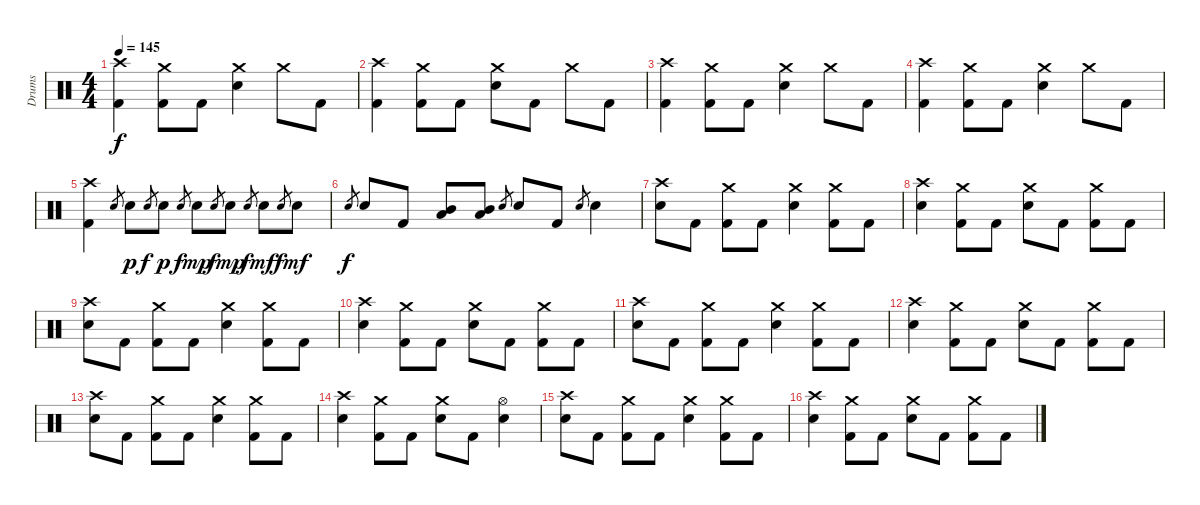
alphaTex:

\track ("Drums" "Drums") {instrument percussion}
\staff {score}
\articulation defaults
\ts (4 4)
\tempo 145
\clef neutral
\ks c
("Crash high (hit)" "Kick (hit) 2").4{dy f} ("Crash medium (hit)" "Kick (hit) 2").8 "Kick (hit) 2".8 ("Crash medium (hit)" "Electric Snare (hit)").4 "Crash medium (hit)".8 "Kick (hit) 2".8 |
("Crash high (hit)" "Kick (hit) 2").4 ("Crash medium (hit)" "Kick (hit) 2").8 "Kick (hit) 2".8 ("Crash medium (hit)" "Electric Snare (hit)").8 "Kick (hit) 2".8 "Crash medium (hit)".8 "Kick (hit) 2".8 |
("Crash high (hit)" "Kick (hit) 2").4 ("Crash medium (hit)" "Kick (hit) 2").8 "Kick (hit) 2".8 ("Crash medium (hit)" "Electric Snare (hit)").4 "Crash medium (hit)".8 "Kick (hit) 2".8 |
("Crash high (hit)" "Kick (hit) 2").4 ("Crash medium (hit)" "Kick (hit) 2").8 "Kick (hit) 2".8 ("Crash medium (hit)" "Electric Snare (hit)").4 "Crash medium (hit)".8 "Kick (hit) 2".8 |
("Crash high (hit)" "Kick (hit) 2").4 "Electric Snare (hit)".8{gr} "Electric Snare (hit)".8{dy p} "Electric Snare (hit)".8{gr dy f} "Electric Snare (hit)".8{dy p} "Electric Snare (hit)".8{gr dy f} "Electric Snare (hit)".8{dy mp} "Electric Snare (hit)".8{gr dy f} "Electric Snare (hit)".8{dy mp} "Electric Snare (hit)".8{gr dy f} "Electric Snare (hit)".8{dy mf} "Electric Snare (hit)".8{gr dy f} "Electric Snare (hit)".8{dy mf} |
"Electric Snare (hit)".8{gr dy f} "Electric Snare (hit)".8 "Kick (hit) 2".8 ("Mid Tom (hit)" "Low Tom (hit)").8 ("Mid Tom (hit)" "Low Tom (hit)").8 "Electric Snare (hit)".8{gr} "Electric Snare (hit)".8 "Kick (hit) 2".8 "Electric Snare (hit)".8{gr} "Electric Snare (hit)".4 |
("Crash high (hit)" "Electric Snare (hit)").8{volume 14} "Kick (hit) 2".8 ("Crash medium (hit)" "Kick (hit) 2").8 "Kick (hit) 2".8 ("Crash medium (hit)" "Electric Snare (hit)").4 ("Crash medium (hit)" "Kick (hit) 2").8 "Kick (hit) 2".8 |
("Crash high (hit)" "Electric Snare (hit)").4 ("Crash medium (hit)" "Kick (hit) 2").8 "Kick (hit) 2".8 ("Crash medium (hit)" "Electric Snare (hit)").8 "Kick (hit) 2".8 ("Crash medium (hit)" "Kick (hit) 2").8 "Kick (hit) 2".8 |
("Crash high (hit)" "Electric Snare (hit)").8{volume 12} "Kick (hit) 2".8 ("Crash medium (hit)" "Kick (hit) 2").8 "Kick (hit) 2".8 ("Crash medium (hit)" "Electric Snare (hit)").4 ("Crash medium (hit)" "Kick (hit) 2").8 "Kick (hit) 2".8 |
("Crash high (hit)" "Electric Snare (hit)").4 ("Crash medium (hit)" "Kick (hit) 2").8 "Kick (hit) 2".8 ("Crash medium (hit)" "Electric Snare (hit)").8 "Kick (hit) 2".8 ("Crash medium (hit)" "Kick (hit) 2").8 "Kick (hit) 2".8 |
("Crash high (hit)" "Electric Snare (hit)").8{volume 10} "Kick (hit) 2".8 ("Crash medium (hit)" "Kick (hit) 2").8 "Kick (hit) 2".8 ("Crash medium (hit)" "Electric Snare (hit)").4 ("Crash medium (hit)" "Kick (hit) 2").8 "Kick (hit) 2".8 |
("Crash high (hit)" "Electric Snare (hit)").4 ("Crash medium (hit)" "Kick (hit) 2").8 "Kick (hit) 2".8 ("Crash medium (hit)" "Electric Snare (hit)").8 "Kick (hit) 2".8 ("Crash medium (hit)" "Kick (hit) 2").8 "Kick (hit) 2".8 |
("Crash high (hit)" "Electric Snare (hit)").8{volume 8} "Kick (hit) 2".8 ("Crash medium (hit)" "Kick (hit) 2").8 "Kick (hit) 2".8 ("Crash medium (hit)" "Electric Snare (hit)").4 ("Crash medium (hit)" "Kick (hit) 2").8 "Kick (hit) 2".8 |
("Crash high (hit)" "Electric Snare (hit)").4 ("Crash medium (hit)" "Kick (hit) 2").8 "Kick (hit) 2".8 ("Crash medium (hit)" "Electric Snare (hit)").8 "Kick (hit) 2".8 ("Hi-Hat (open)" "Electric Snare (hit)").4 |
("Crash high (hit)" "Electric Snare (hit)").8{volume 6} "Kick (hit) 2".8 ("Crash medium (hit)" "Kick (hit) 2").8 "Kick (hit) 2".8 ("Crash medium (hit)" "Electric Snare (hit)").4 ("Crash medium (hit)" "Kick (hit) 2").8 "Kick (hit) 2".8 |
("Crash high (hit)" "Electric Snare (hit)").4 ("Crash medium (hit)" "Kick (hit) 2").8 "Kick (hit) 2".8 ("Crash medium (hit)" "Electric Snare (hit)").8 "Kick (hit) 2".8 ("Crash medium (hit)" "Kick (hit) 2").8 "Kick (hit) 2".8
